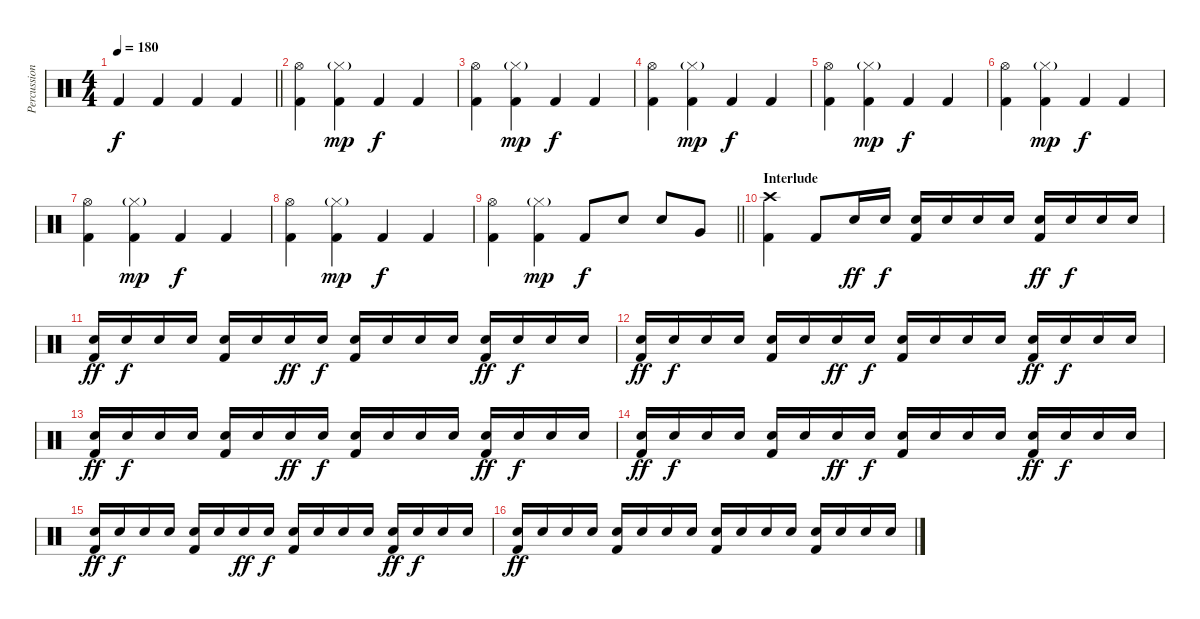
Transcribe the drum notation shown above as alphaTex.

\track ("Percussion" "Percussion") {instrument percussion}
\staff {score}
\articulation defaults
\ts (4 4)
\tempo 180
\clef neutral
\barLineRight lightlight
\ks c "Kick (hit) 2".4{dy f} "Kick (hit) 2".4 "Kick (hit) 2".4 "Kick (hit) 2".4
|
("Hi-Hat (open)" "Kick (hit) 2").4 ("Hi-Hat (closed)"{g} "Kick (hit) 2").4{dy mp} "Kick (hit) 2".4{dy f} "Kick (hit) 2".4 |
("Hi-Hat (open)" "Kick (hit) 2").4 ("Hi-Hat (closed)"{g} "Kick (hit) 2").4{dy mp} "Kick (hit) 2".4{dy f} "Kick (hit) 2".4 |
("Hi-Hat (open)" "Kick (hit) 2").4 ("Hi-Hat (closed)"{g} "Kick (hit) 2").4{dy mp} "Kick (hit) 2".4{dy f} "Kick (hit) 2".4 |
("Hi-Hat (open)" "Kick (hit) 2").4 ("Hi-Hat (closed)"{g} "Kick (hit) 2").4{dy mp} "Kick (hit) 2".4{dy f} "Kick (hit) 2".4 |
("Hi-Hat (open)" "Kick (hit) 2").4 ("Hi-Hat (closed)"{g} "Kick (hit) 2").4{dy mp} "Kick (hit) 2".4{dy f} "Kick (hit) 2".4 |
("Hi-Hat (open)" "Kick (hit) 2").4 ("Hi-Hat (closed)"{g} "Kick (hit) 2").4{dy mp} "Kick (hit) 2".4{dy f} "Kick (hit) 2".4 |
("Hi-Hat (open)" "Kick (hit) 2").4 ("Hi-Hat (closed)"{g} "Kick (hit) 2").4{dy mp} "Kick (hit) 2".4{dy f} "Kick (hit) 2".4 |
\barLineRight lightlight
("Hi-Hat (open)" "Kick (hit) 2").4 ("Hi-Hat (closed)"{g} "Kick (hit) 2").4{dy mp} "Kick (hit) 2".8{dy f} "Snare (hit) 2".8 "Snare (hit) 2".8 "Very Low Tom (hit)".8 |
\section ("" "Interlude")
("Crash high (hit)" "Kick (hit) 2").4 "Kick (hit) 2".8 "Snare (hit) 2".16{dy ff} "Snare (hit) 2".16{dy f} ("Snare (hit) 2" "Kick (hit) 2").16 "Snare (hit) 2".16 "Snare (hit) 2".16 "Snare (hit) 2".16 ("Snare (hit) 2" "Kick (hit) 2").16{dy ff} "Snare (hit) 2".16{dy f} "Snare (hit) 2".16 "Snare (hit) 2".16 |
("Snare (hit) 2" "Kick (hit) 2").16{dy ff} "Snare (hit) 2".16{dy f} "Snare (hit) 2".16 "Snare (hit) 2".16 ("Snare (hit) 2" "Kick (hit) 2").16 "Snare (hit) 2".16 "Snare (hit) 2".16{dy ff} "Snare (hit) 2".16{dy f} ("Snare (hit) 2" "Kick (hit) 2").16 "Snare (hit) 2".16 "Snare (hit) 2".16 "Snare (hit) 2".16 ("Snare (hit) 2" "Kick (hit) 2").16{dy ff} "Snare (hit) 2".16{dy f} "Snare (hit) 2".16 "Snare (hit) 2".16 |
("Snare (hit) 2" "Kick (hit) 2").16{dy ff} "Snare (hit) 2".16{dy f} "Snare (hit) 2".16 "Snare (hit) 2".16 ("Snare (hit) 2" "Kick (hit) 2").16 "Snare (hit) 2".16 "Snare (hit) 2".16{dy ff} "Snare (hit) 2".16{dy f} ("Snare (hit) 2" "Kick (hit) 2").16 "Snare (hit) 2".16 "Snare (hit) 2".16 "Snare (hit) 2".16 ("Snare (hit) 2" "Kick (hit) 2").16{dy ff} "Snare (hit) 2".16{dy f} "Snare (hit) 2".16 "Snare (hit) 2".16 |
("Snare (hit) 2" "Kick (hit) 2").16{dy ff} "Snare (hit) 2".16{dy f} "Snare (hit) 2".16 "Snare (hit) 2".16 ("Snare (hit) 2" "Kick (hit) 2").16 "Snare (hit) 2".16 "Snare (hit) 2".16{dy ff} "Snare (hit) 2".16{dy f} ("Snare (hit) 2" "Kick (hit) 2").16 "Snare (hit) 2".16 "Snare (hit) 2".16 "Snare (hit) 2".16 ("Snare (hit) 2" "Kick (hit) 2").16{dy ff} "Snare (hit) 2".16{dy f} "Snare (hit) 2".16 "Snare (hit) 2".16 |
("Snare (hit) 2" "Kick (hit) 2").16{dy ff} "Snare (hit) 2".16{dy f} "Snare (hit) 2".16 "Snare (hit) 2".16 ("Snare (hit) 2" "Kick (hit) 2").16 "Snare (hit) 2".16 "Snare (hit) 2".16{dy ff} "Snare (hit) 2".16{dy f} ("Snare (hit) 2" "Kick (hit) 2").16 "Snare (hit) 2".16 "Snare (hit) 2".16 "Snare (hit) 2".16 ("Snare (hit) 2" "Kick (hit) 2").16{dy ff} "Snare (hit) 2".16{dy f} "Snare (hit) 2".16 "Snare (hit) 2".16 |
("Snare (hit) 2" "Kick (hit) 2").16{dy ff} "Snare (hit) 2".16{dy f} "Snare (hit) 2".16 "Snare (hit) 2".16 ("Snare (hit) 2" "Kick (hit) 2").16 "Snare (hit) 2".16 "Snare (hit) 2".16{dy ff} "Snare (hit) 2".16{dy f} ("Snare (hit) 2" "Kick (hit) 2").16 "Snare (hit) 2".16 "Snare (hit) 2".16 "Snare (hit) 2".16 ("Snare (hit) 2" "Kick (hit) 2").16{dy ff} "Snare (hit) 2".16{dy f} "Snare (hit) 2".16 "Snare (hit) 2".16 |
("Snare (hit) 2" "Kick (hit) 2").16{dy ff} "Snare (hit) 2".16 "Snare (hit) 2".16 "Snare (hit) 2".16 ("Snare (hit) 2" "Kick (hit) 2").16 "Snare (hit) 2".16 "Snare (hit) 2".16 "Snare (hit) 2".16 ("Snare (hit) 2" "Kick (hit) 2").16 "Snare (hit) 2".16 "Snare (hit) 2".16 "Snare (hit) 2".16 ("Snare (hit) 2" "Kick (hit) 2").16 "Snare (hit) 2".16 "Snare (hit) 2".16 "Snare (hit) 2".16
